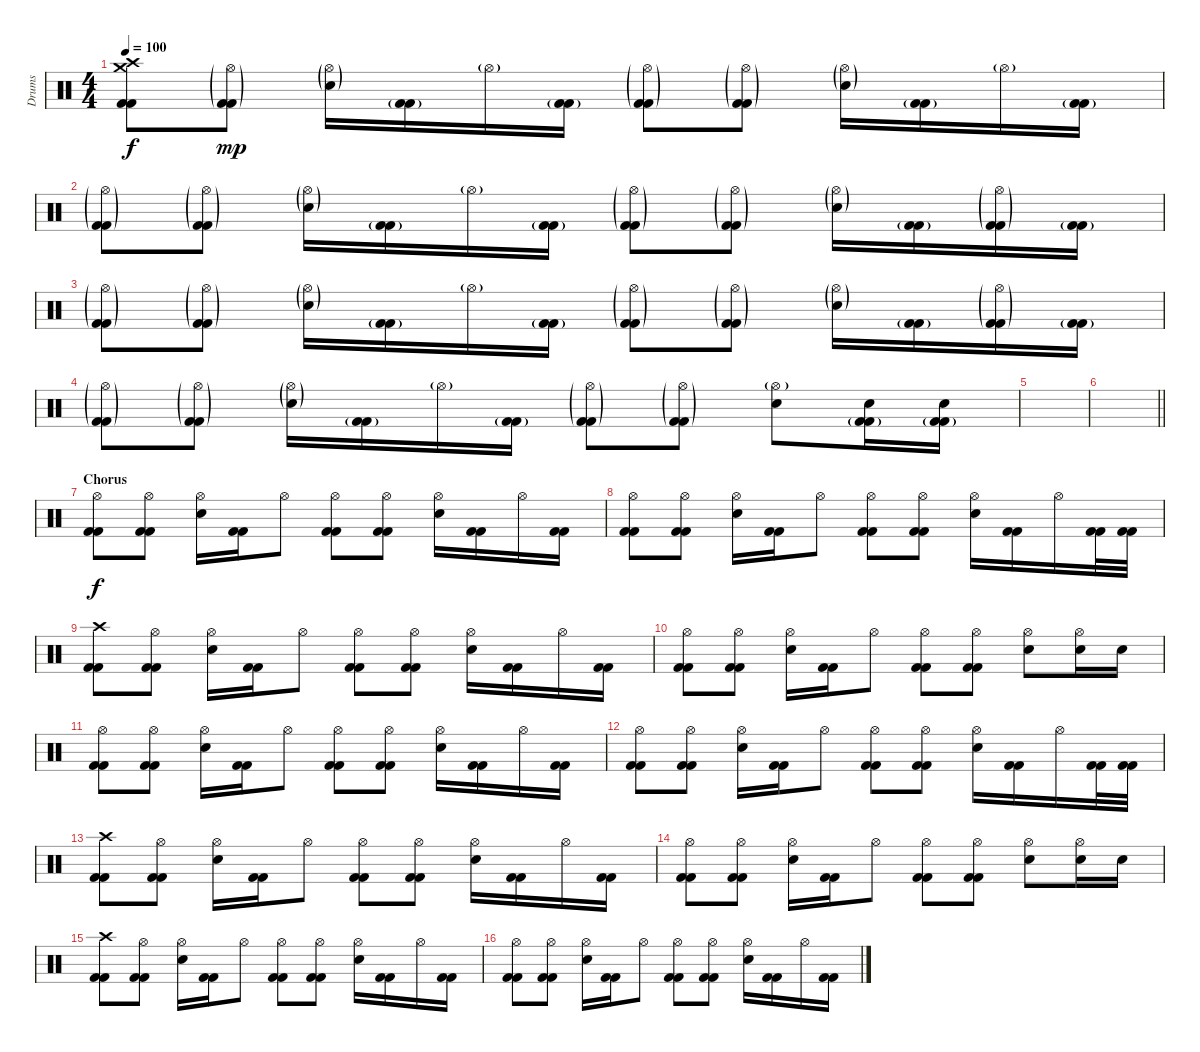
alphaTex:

\track ("Drums" "Drums") {instrument percussion}
\staff {score}
\articulation defaults
\ts (4 4)
\tempo 100
\clef neutral
\ks c
("Crash medium (hit)" "Crash high (hit)" "Kick (hit) 2" "Kick (hit) 2").8{dy f} ("Hi-Hat (open)"{g} "Kick (hit) 2"{g} "Kick (hit) 2"{g}).8{dy mp volume 8} ("Hi-Hat (open)"{g} "Electric Snare (hit)"{g}).16 ("Kick (hit) 2"{g} "Kick (hit) 2"{g}).16 "Hi-Hat (open)"{g}.16 ("Kick (hit) 2"{g} "Kick (hit) 2"{g}).16 ("Hi-Hat (open)"{g} "Kick (hit) 2"{g} "Kick (hit) 2"{g}).8 ("Hi-Hat (open)"{g} "Kick (hit) 2"{g} "Kick (hit) 2"{g}).8 ("Hi-Hat (open)"{g} "Electric Snare (hit)"{g}).16 ("Kick (hit) 2"{g} "Kick (hit) 2"{g}).16 "Hi-Hat (open)"{g}.16 ("Kick (hit) 2"{g} "Kick (hit) 2"{g}).16 |
("Hi-Hat (open)"{g} "Kick (hit) 2"{g} "Kick (hit) 2"{g}).8 ("Hi-Hat (open)"{g} "Kick (hit) 2"{g} "Kick (hit) 2"{g}).8 ("Hi-Hat (open)"{g} "Electric Snare (hit)"{g}).16 ("Kick (hit) 2"{g} "Kick (hit) 2"{g}).16 "Hi-Hat (open)"{g}.16 ("Kick (hit) 2"{g} "Kick (hit) 2"{g}).16 ("Hi-Hat (open)"{g} "Kick (hit) 2"{g} "Kick (hit) 2"{g}).8 ("Hi-Hat (open)"{g} "Kick (hit) 2"{g} "Kick (hit) 2"{g}).8 ("Hi-Hat (open)"{g} "Electric Snare (hit)"{g}).16 ("Kick (hit) 2"{g} "Kick (hit) 2"{g}).16 ("Hi-Hat (open)"{g} "Kick (hit) 2"{g} "Kick (hit) 2"{g}).16 ("Kick (hit) 2"{g} "Kick (hit) 2"{g}).16 |
("Hi-Hat (open)"{g} "Kick (hit) 2"{g} "Kick (hit) 2"{g}).8 ("Hi-Hat (open)"{g} "Kick (hit) 2"{g} "Kick (hit) 2"{g}).8 ("Hi-Hat (open)"{g} "Electric Snare (hit)"{g}).16 ("Kick (hit) 2"{g} "Kick (hit) 2"{g}).16 "Hi-Hat (open)"{g}.16 ("Kick (hit) 2"{g} "Kick (hit) 2"{g}).16 ("Hi-Hat (open)"{g} "Kick (hit) 2"{g} "Kick (hit) 2"{g}).8 ("Hi-Hat (open)"{g} "Kick (hit) 2"{g} "Kick (hit) 2"{g}).8 ("Hi-Hat (open)"{g} "Electric Snare (hit)"{g}).16 ("Kick (hit) 2"{g} "Kick (hit) 2"{g}).16 ("Hi-Hat (open)"{g} "Kick (hit) 2"{g} "Kick (hit) 2"{g}).16 ("Kick (hit) 2"{g} "Kick (hit) 2"{g}).16 |
("Hi-Hat (open)"{g} "Kick (hit) 2"{g} "Kick (hit) 2"{g}).8 ("Hi-Hat (open)"{g} "Kick (hit) 2"{g} "Kick (hit) 2"{g}).8 ("Hi-Hat (open)"{g} "Electric Snare (hit)"{g}).16 ("Kick (hit) 2"{g} "Kick (hit) 2"{g}).16 "Hi-Hat (open)"{g}.16 ("Kick (hit) 2"{g} "Kick (hit) 2"{g}).16 ("Hi-Hat (open)"{g} "Kick (hit) 2"{g} "Kick (hit) 2"{g}).8 ("Hi-Hat (open)"{g} "Kick (hit) 2"{g} "Kick (hit) 2"{g}).8 ("Hi-Hat (open)"{g} "Electric Snare (hit)").8 ("Electric Snare (hit)" "Kick (hit) 2"{g} "Kick (hit) 2"{g}).16 ("Electric Snare (hit)" "Kick (hit) 2"{g} "Kick (hit) 2"{g}).16 |
|
\barLineRight lightlight
|
\section ("" "Chorus")
("Hi-Hat (open)" "Kick (hit) 2" "Kick (hit) 2").8{dy f} ("Hi-Hat (open)" "Kick (hit) 2" "Kick (hit) 2").8 ("Hi-Hat (open)" "Electric Snare (hit)").16 ("Kick (hit) 2" "Kick (hit) 2").16 "Hi-Hat (open)".8 ("Hi-Hat (open)" "Kick (hit) 2" "Kick (hit) 2").8 ("Hi-Hat (open)" "Kick (hit) 2" "Kick (hit) 2").8 ("Hi-Hat (open)" "Electric Snare (hit)").16 ("Kick (hit) 2" "Kick (hit) 2").16 "Hi-Hat (open)".16 ("Kick (hit) 2" "Kick (hit) 2").16 |
("Hi-Hat (open)" "Kick (hit) 2" "Kick (hit) 2").8 ("Hi-Hat (open)" "Kick (hit) 2" "Kick (hit) 2").8 ("Hi-Hat (open)" "Electric Snare (hit)").16 ("Kick (hit) 2" "Kick (hit) 2").16 "Hi-Hat (open)".8 ("Hi-Hat (open)" "Kick (hit) 2" "Kick (hit) 2").8 ("Hi-Hat (open)" "Kick (hit) 2" "Kick (hit) 2").8 ("Hi-Hat (open)" "Electric Snare (hit)").16 ("Kick (hit) 2" "Kick (hit) 2").16 "Hi-Hat (open)".16 ("Kick (hit) 2" "Kick (hit) 2").32 ("Kick (hit) 2" "Kick (hit) 2").32 |
("Crash high (hit)" "Kick (hit) 2" "Kick (hit) 2").8 ("Hi-Hat (open)" "Kick (hit) 2" "Kick (hit) 2").8 ("Hi-Hat (open)" "Electric Snare (hit)").16 ("Kick (hit) 2" "Kick (hit) 2").16 "Hi-Hat (open)".8 ("Hi-Hat (open)" "Kick (hit) 2" "Kick (hit) 2").8 ("Hi-Hat (open)" "Kick (hit) 2" "Kick (hit) 2").8 ("Hi-Hat (open)" "Electric Snare (hit)").16 ("Kick (hit) 2" "Kick (hit) 2").16 "Hi-Hat (open)".16 ("Kick (hit) 2" "Kick (hit) 2").16 |
("Hi-Hat (open)" "Kick (hit) 2" "Kick (hit) 2").8 ("Hi-Hat (open)" "Kick (hit) 2" "Kick (hit) 2").8 ("Hi-Hat (open)" "Electric Snare (hit)").16 ("Kick (hit) 2" "Kick (hit) 2").16 "Hi-Hat (open)".8 ("Hi-Hat (open)" "Kick (hit) 2" "Kick (hit) 2").8 ("Hi-Hat (open)" "Kick (hit) 2" "Kick (hit) 2").8 ("Hi-Hat (open)" "Electric Snare (hit)").8 ("Hi-Hat (open)" "Electric Snare (hit)").16 "Electric Snare (hit)".16 |
("Hi-Hat (open)" "Kick (hit) 2" "Kick (hit) 2").8 ("Hi-Hat (open)" "Kick (hit) 2" "Kick (hit) 2").8 ("Hi-Hat (open)" "Electric Snare (hit)").16 ("Kick (hit) 2" "Kick (hit) 2").16 "Hi-Hat (open)".8 ("Hi-Hat (open)" "Kick (hit) 2" "Kick (hit) 2").8 ("Hi-Hat (open)" "Kick (hit) 2" "Kick (hit) 2").8 ("Hi-Hat (open)" "Electric Snare (hit)").16 ("Kick (hit) 2" "Kick (hit) 2").16 "Hi-Hat (open)".16 ("Kick (hit) 2" "Kick (hit) 2").16 |
("Hi-Hat (open)" "Kick (hit) 2" "Kick (hit) 2").8 ("Hi-Hat (open)" "Kick (hit) 2" "Kick (hit) 2").8 ("Hi-Hat (open)" "Electric Snare (hit)").16 ("Kick (hit) 2" "Kick (hit) 2").16 "Hi-Hat (open)".8 ("Hi-Hat (open)" "Kick (hit) 2" "Kick (hit) 2").8 ("Hi-Hat (open)" "Kick (hit) 2" "Kick (hit) 2").8 ("Hi-Hat (open)" "Electric Snare (hit)").16 ("Kick (hit) 2" "Kick (hit) 2").16 "Hi-Hat (open)".16 ("Kick (hit) 2" "Kick (hit) 2").32 ("Kick (hit) 2" "Kick (hit) 2").32 |
("Crash high (hit)" "Kick (hit) 2" "Kick (hit) 2").8 ("Hi-Hat (open)" "Kick (hit) 2" "Kick (hit) 2").8 ("Hi-Hat (open)" "Electric Snare (hit)").16 ("Kick (hit) 2" "Kick (hit) 2").16 "Hi-Hat (open)".8 ("Hi-Hat (open)" "Kick (hit) 2" "Kick (hit) 2").8 ("Hi-Hat (open)" "Kick (hit) 2" "Kick (hit) 2").8 ("Hi-Hat (open)" "Electric Snare (hit)").16 ("Kick (hit) 2" "Kick (hit) 2").16 "Hi-Hat (open)".16 ("Kick (hit) 2" "Kick (hit) 2").16 |
("Hi-Hat (open)" "Kick (hit) 2" "Kick (hit) 2").8 ("Hi-Hat (open)" "Kick (hit) 2" "Kick (hit) 2").8 ("Hi-Hat (open)" "Electric Snare (hit)").16 ("Kick (hit) 2" "Kick (hit) 2").16 "Hi-Hat (open)".8 ("Hi-Hat (open)" "Kick (hit) 2" "Kick (hit) 2").8 ("Hi-Hat (open)" "Kick (hit) 2" "Kick (hit) 2").8 ("Hi-Hat (open)" "Electric Snare (hit)").8 ("Hi-Hat (open)" "Electric Snare (hit)").16 "Electric Snare (hit)".16 |
("Crash high (hit)" "Kick (hit) 2" "Kick (hit) 2").8 ("Hi-Hat (open)" "Kick (hit) 2" "Kick (hit) 2").8 ("Hi-Hat (open)" "Electric Snare (hit)").16 ("Kick (hit) 2" "Kick (hit) 2").16 "Hi-Hat (open)".8 ("Hi-Hat (open)" "Kick (hit) 2" "Kick (hit) 2").8 ("Hi-Hat (open)" "Kick (hit) 2" "Kick (hit) 2").8 ("Hi-Hat (open)" "Electric Snare (hit)").16 ("Kick (hit) 2" "Kick (hit) 2").16 "Hi-Hat (open)".16 ("Kick (hit) 2" "Kick (hit) 2").16 |
("Hi-Hat (open)" "Kick (hit) 2" "Kick (hit) 2").8 ("Hi-Hat (open)" "Kick (hit) 2" "Kick (hit) 2").8 ("Hi-Hat (open)" "Electric Snare (hit)").16 ("Kick (hit) 2" "Kick (hit) 2").16 "Hi-Hat (open)".8 ("Hi-Hat (open)" "Kick (hit) 2" "Kick (hit) 2").8 ("Hi-Hat (open)" "Kick (hit) 2" "Kick (hit) 2").8 ("Hi-Hat (open)" "Electric Snare (hit)").16 ("Kick (hit) 2" "Kick (hit) 2").16 "Hi-Hat (open)".16 ("Kick (hit) 2" "Kick (hit) 2").16
